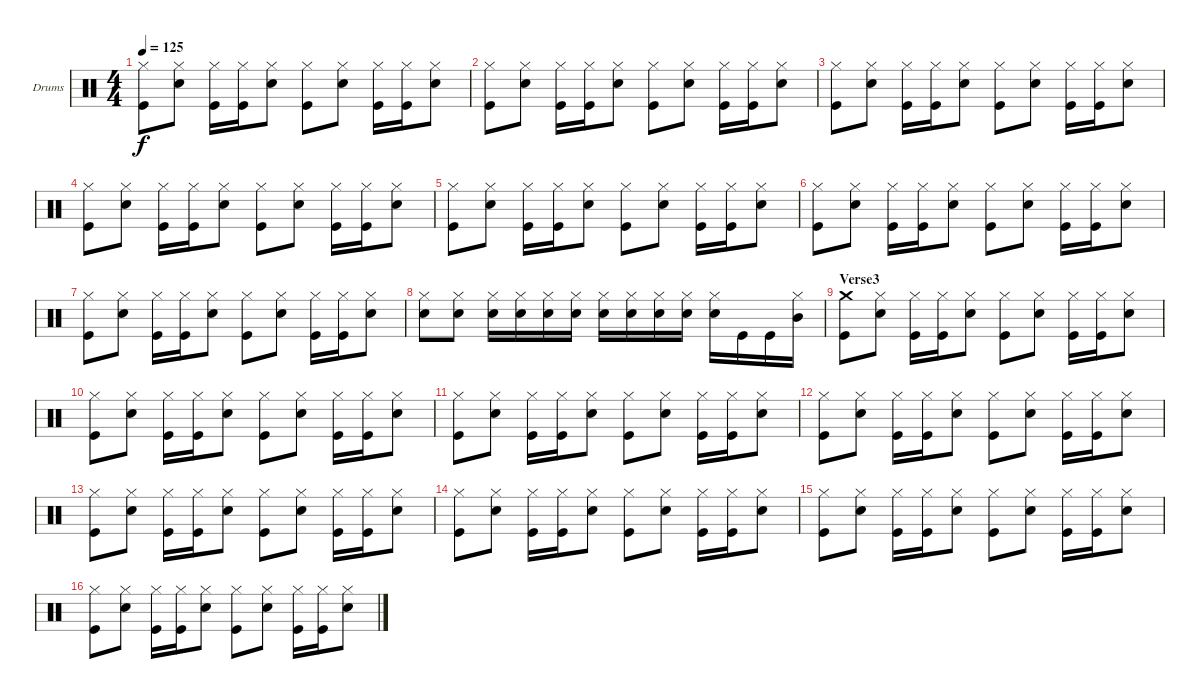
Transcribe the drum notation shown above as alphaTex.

\defaultSystemsLayout 4
\bracketExtendMode groupsimilarinstruments
\firstSystemTrackNameOrientation horizontal
\otherSystemsTrackNameOrientation horizontal
\track ("Drum" "Drums") {instrument percussion}
\staff {score}
\articulation defaults
\ts (4 4)
\tempo 125
\clef neutral
\ks c
("Hi-Hat (closed)" "Kick (hit)").8{dy f} ("Hi-Hat (closed)" "Snare (hit) 2").8 ("Hi-Hat (closed)" "Kick (hit)").16 ("Hi-Hat (closed)" "Kick (hit)").16 ("Hi-Hat (closed)" "Snare (hit) 2").8 ("Hi-Hat (closed)" "Kick (hit)").8 ("Hi-Hat (closed)" "Snare (hit) 2").8 ("Hi-Hat (closed)" "Kick (hit)").16 ("Hi-Hat (closed)" "Kick (hit)").16 ("Hi-Hat (closed)" "Snare (hit) 2").8 |
("Hi-Hat (closed)" "Kick (hit)").8 ("Hi-Hat (closed)" "Snare (hit) 2").8 ("Hi-Hat (closed)" "Kick (hit)").16 ("Hi-Hat (closed)" "Kick (hit)").16 ("Hi-Hat (closed)" "Snare (hit) 2").8 ("Hi-Hat (closed)" "Kick (hit)").8 ("Hi-Hat (closed)" "Snare (hit) 2").8 ("Hi-Hat (closed)" "Kick (hit)").16 ("Hi-Hat (closed)" "Kick (hit)").16 ("Hi-Hat (closed)" "Snare (hit) 2").8 |
("Hi-Hat (closed)" "Kick (hit)").8 ("Hi-Hat (closed)" "Snare (hit) 2").8 ("Hi-Hat (closed)" "Kick (hit)").16 ("Hi-Hat (closed)" "Kick (hit)").16 ("Hi-Hat (closed)" "Snare (hit) 2").8 ("Hi-Hat (closed)" "Kick (hit)").8 ("Hi-Hat (closed)" "Snare (hit) 2").8 ("Hi-Hat (closed)" "Kick (hit)").16 ("Hi-Hat (closed)" "Kick (hit)").16 ("Hi-Hat (closed)" "Snare (hit) 2").8 |
("Hi-Hat (closed)" "Kick (hit)").8 ("Hi-Hat (closed)" "Snare (hit) 2").8 ("Hi-Hat (closed)" "Kick (hit)").16 ("Hi-Hat (closed)" "Kick (hit)").16 ("Hi-Hat (closed)" "Snare (hit) 2").8 ("Hi-Hat (closed)" "Kick (hit)").8 ("Hi-Hat (closed)" "Snare (hit) 2").8 ("Hi-Hat (closed)" "Kick (hit)").16 ("Hi-Hat (closed)" "Kick (hit)").16 ("Hi-Hat (closed)" "Snare (hit) 2").8 |
("Hi-Hat (closed)" "Kick (hit)").8 ("Hi-Hat (closed)" "Snare (hit) 2").8 ("Hi-Hat (closed)" "Kick (hit)").16 ("Hi-Hat (closed)" "Kick (hit)").16 ("Hi-Hat (closed)" "Snare (hit) 2").8 ("Hi-Hat (closed)" "Kick (hit)").8 ("Hi-Hat (closed)" "Snare (hit) 2").8 ("Hi-Hat (closed)" "Kick (hit)").16 ("Hi-Hat (closed)" "Kick (hit)").16 ("Hi-Hat (closed)" "Snare (hit) 2").8 |
("Hi-Hat (closed)" "Kick (hit)").8 ("Hi-Hat (closed)" "Snare (hit) 2").8 ("Hi-Hat (closed)" "Kick (hit)").16 ("Hi-Hat (closed)" "Kick (hit)").16 ("Hi-Hat (closed)" "Snare (hit) 2").8 ("Hi-Hat (closed)" "Kick (hit)").8 ("Hi-Hat (closed)" "Snare (hit) 2").8 ("Hi-Hat (closed)" "Kick (hit)").16 ("Hi-Hat (closed)" "Kick (hit)").16 ("Hi-Hat (closed)" "Snare (hit) 2").8 |
("Hi-Hat (closed)" "Kick (hit)").8 ("Hi-Hat (closed)" "Snare (hit) 2").8 ("Hi-Hat (closed)" "Kick (hit)").16 ("Hi-Hat (closed)" "Kick (hit)").16 ("Hi-Hat (closed)" "Snare (hit) 2").8 ("Hi-Hat (closed)" "Kick (hit)").8 ("Hi-Hat (closed)" "Snare (hit) 2").8 ("Hi-Hat (closed)" "Kick (hit)").16 ("Hi-Hat (closed)" "Kick (hit)").16 ("Hi-Hat (closed)" "Snare (hit) 2").8 |
("Hi-Hat (closed)" "Snare (hit) 2").8 ("Hi-Hat (closed)" "Snare (hit) 2").8 ("Hi-Hat (closed)" "Snare (hit) 2").16 ("Hi-Hat (closed)" "Snare (hit) 2").16 ("Hi-Hat (closed)" "Snare (hit) 2").16 ("Hi-Hat (closed)" "Snare (hit) 2").16 ("Hi-Hat (closed)" "Snare (hit) 2").16 ("Hi-Hat (closed)" "Snare (hit) 2").16 ("Hi-Hat (closed)" "Snare (hit) 2").16 ("Hi-Hat (closed)" "Snare (hit) 2").16 ("Hi-Hat (closed)" "Snare (hit) 2").16 "Kick (hit)".16 "Kick (hit)".16 ("Hi-Hat (closed)" "Mid Tom (hit)").16 |
\section ("" "Verse3")
("Crash medium (hit)" "Kick (hit)").8 ("Hi-Hat (closed)" "Snare (hit) 2").8 ("Hi-Hat (closed)" "Kick (hit)").16 ("Hi-Hat (closed)" "Kick (hit)").16 ("Hi-Hat (closed)" "Snare (hit) 2").8 ("Hi-Hat (closed)" "Kick (hit)").8 ("Hi-Hat (closed)" "Snare (hit) 2").8 ("Hi-Hat (closed)" "Kick (hit)").16 ("Hi-Hat (closed)" "Kick (hit)").16 ("Hi-Hat (closed)" "Snare (hit) 2").8 |
("Hi-Hat (closed)" "Kick (hit)").8 ("Hi-Hat (closed)" "Snare (hit) 2").8 ("Hi-Hat (closed)" "Kick (hit)").16 ("Hi-Hat (closed)" "Kick (hit)").16 ("Hi-Hat (closed)" "Snare (hit) 2").8 ("Hi-Hat (closed)" "Kick (hit)").8 ("Hi-Hat (closed)" "Snare (hit) 2").8 ("Hi-Hat (closed)" "Kick (hit)").16 ("Hi-Hat (closed)" "Kick (hit)").16 ("Hi-Hat (closed)" "Snare (hit) 2").8 |
("Hi-Hat (closed)" "Kick (hit)").8 ("Hi-Hat (closed)" "Snare (hit) 2").8 ("Hi-Hat (closed)" "Kick (hit)").16 ("Hi-Hat (closed)" "Kick (hit)").16 ("Hi-Hat (closed)" "Snare (hit) 2").8 ("Hi-Hat (closed)" "Kick (hit)").8 ("Hi-Hat (closed)" "Snare (hit) 2").8 ("Hi-Hat (closed)" "Kick (hit)").16 ("Hi-Hat (closed)" "Kick (hit)").16 ("Hi-Hat (closed)" "Snare (hit) 2").8 |
("Hi-Hat (closed)" "Kick (hit)").8 ("Hi-Hat (closed)" "Snare (hit) 2").8 ("Hi-Hat (closed)" "Kick (hit)").16 ("Hi-Hat (closed)" "Kick (hit)").16 ("Hi-Hat (closed)" "Snare (hit) 2").8 ("Hi-Hat (closed)" "Kick (hit)").8 ("Hi-Hat (closed)" "Snare (hit) 2").8 ("Hi-Hat (closed)" "Kick (hit)").16 ("Hi-Hat (closed)" "Kick (hit)").16 ("Hi-Hat (closed)" "Snare (hit) 2").8 |
("Hi-Hat (closed)" "Kick (hit)").8 ("Hi-Hat (closed)" "Snare (hit) 2").8 ("Hi-Hat (closed)" "Kick (hit)").16 ("Hi-Hat (closed)" "Kick (hit)").16 ("Hi-Hat (closed)" "Snare (hit) 2").8 ("Hi-Hat (closed)" "Kick (hit)").8 ("Hi-Hat (closed)" "Snare (hit) 2").8 ("Hi-Hat (closed)" "Kick (hit)").16 ("Hi-Hat (closed)" "Kick (hit)").16 ("Hi-Hat (closed)" "Snare (hit) 2").8 |
("Hi-Hat (closed)" "Kick (hit)").8 ("Hi-Hat (closed)" "Snare (hit) 2").8 ("Hi-Hat (closed)" "Kick (hit)").16 ("Hi-Hat (closed)" "Kick (hit)").16 ("Hi-Hat (closed)" "Snare (hit) 2").8 ("Hi-Hat (closed)" "Kick (hit)").8 ("Hi-Hat (closed)" "Snare (hit) 2").8 ("Hi-Hat (closed)" "Kick (hit)").16 ("Hi-Hat (closed)" "Kick (hit)").16 ("Hi-Hat (closed)" "Snare (hit) 2").8 |
("Hi-Hat (closed)" "Kick (hit)").8 ("Hi-Hat (closed)" "Snare (hit) 2").8 ("Hi-Hat (closed)" "Kick (hit)").16 ("Hi-Hat (closed)" "Kick (hit)").16 ("Hi-Hat (closed)" "Snare (hit) 2").8 ("Hi-Hat (closed)" "Kick (hit)").8 ("Hi-Hat (closed)" "Snare (hit) 2").8 ("Hi-Hat (closed)" "Kick (hit)").16 ("Hi-Hat (closed)" "Kick (hit)").16 ("Hi-Hat (closed)" "Snare (hit) 2").8 |
("Hi-Hat (closed)" "Kick (hit)").8 ("Hi-Hat (closed)" "Snare (hit) 2").8 ("Hi-Hat (closed)" "Kick (hit)").16 ("Hi-Hat (closed)" "Kick (hit)").16 ("Hi-Hat (closed)" "Snare (hit) 2").8 ("Hi-Hat (closed)" "Kick (hit)").8 ("Hi-Hat (closed)" "Snare (hit) 2").8 ("Hi-Hat (closed)" "Kick (hit)").16 ("Hi-Hat (closed)" "Kick (hit)").16 ("Hi-Hat (closed)" "Snare (hit) 2").8
